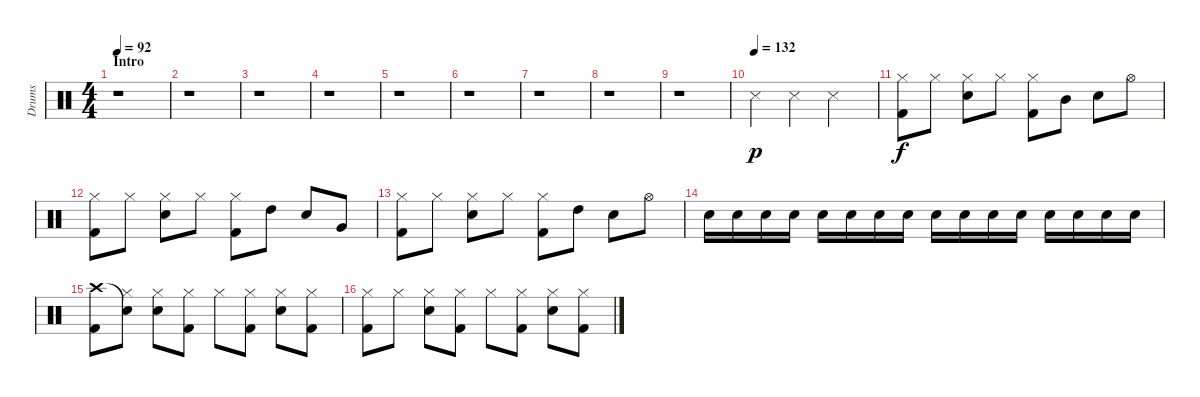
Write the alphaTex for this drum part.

\track ("Drums" "Drums") {instrument percussion}
\staff {score}
\articulation defaults
\ts (4 4)
\section ("" "Intro")
\tempo 92
\clef neutral
\ks c
r.1{dy p} |
r.1 |
r.1 |
r.1 |
r.1 |
r.1 |
r.1 |
r.1 |
r.1 |
\tempo (132)
"Snare (side stick) 3".4 "Snare (side stick) 3".4 "Snare (side stick) 3".2 |
("Hi-Hat (closed)" "Kick (hit) 2").8{dy f} "Hi-Hat (closed)".8 ("Hi-Hat (closed)" "Snare (hit) 2").8 "Hi-Hat (closed)".8 ("Hi-Hat (closed)" "Kick (hit) 2").8 "Mid Tom (hit)".8 "Snare (hit) 2".8 "Hi-Hat (open)".8 |
("Hi-Hat (closed)" "Kick (hit) 2").8 "Hi-Hat (closed)".8 ("Hi-Hat (closed)" "Snare (hit) 2").8 "Hi-Hat (closed)".8 ("Hi-Hat (closed)" "Kick (hit) 2").8 "High Tom (hit)".8 "Snare (hit) 2".8 "Very Low Tom (hit)".8 |
("Hi-Hat (closed)" "Kick (hit) 2").8 "Hi-Hat (closed)".8 ("Hi-Hat (closed)" "Snare (hit) 2").8 "Hi-Hat (closed)".8 ("Hi-Hat (closed)" "Kick (hit) 2").8 "High Tom (hit)".8 "Snare (hit) 2".8 "Hi-Hat (open)".8 |
"Snare (hit) 2".16 "Snare (hit) 2".16 "Snare (hit) 2".16 "Snare (hit) 2".16 "Snare (hit) 2".16 "Snare (hit) 2".16 "Snare (hit) 2".16 "Snare (hit) 2".16 "Snare (hit) 2".16 "Snare (hit) 2".16 "Snare (hit) 2".16 "Snare (hit) 2".16 "Snare (hit) 2".16 "Snare (hit) 2".16 "Snare (hit) 2".16 "Snare (hit) 2".16 |
("Crash high (hit)" "Kick (hit) 2").8 ("Snare (hit)"{t} "Hi-Hat (closed)").8 ("Hi-Hat (closed)" "Snare (hit) 2").8 ("Hi-Hat (closed)" "Kick (hit) 2").8 "Hi-Hat (closed)".8 ("Hi-Hat (closed)" "Kick (hit) 2").8 ("Hi-Hat (closed)" "Snare (hit) 2").8 ("Hi-Hat (closed)" "Kick (hit) 2").8 |
("Hi-Hat (closed)" "Kick (hit) 2").8 "Hi-Hat (closed)".8 ("Hi-Hat (closed)" "Snare (hit) 2").8 ("Hi-Hat (closed)" "Kick (hit) 2").8 "Hi-Hat (closed)".8 ("Hi-Hat (closed)" "Kick (hit) 2").8 ("Hi-Hat (closed)" "Snare (hit) 2").8 ("Hi-Hat (closed)" "Kick (hit) 2").8
